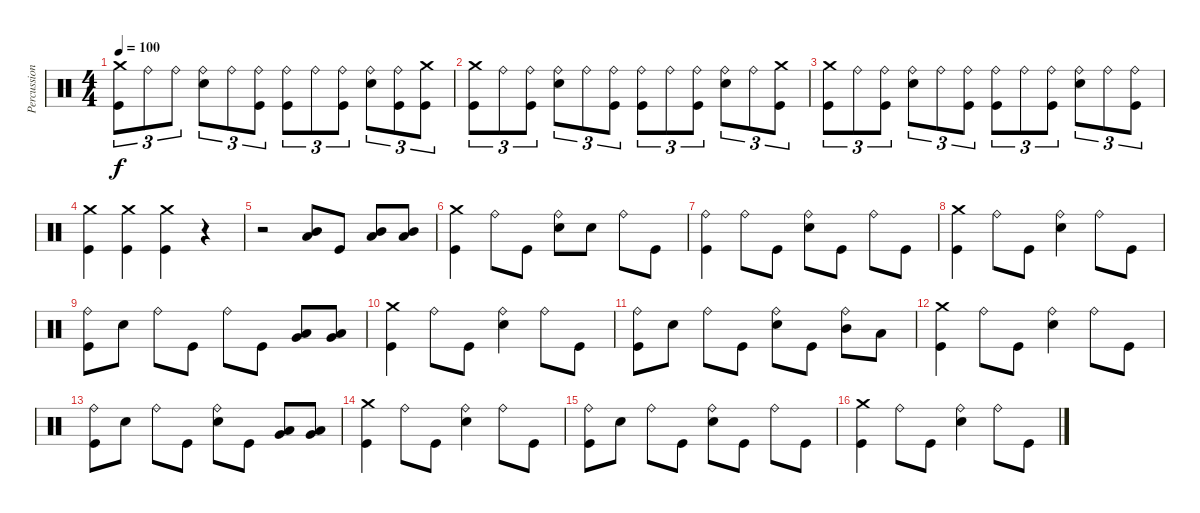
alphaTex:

\track ("Percussions" "Percussion") {instrument percussion}
\staff {score}
\articulation defaults
\ts (4 4)
\tempo 100
\clef neutral
\ks c
("Kick (hit)" "Crash medium (hit)").8{tu (3 2) dy f} "Ride (bell)".8{tu (3 2)} "Ride (bell)".8{tu (3 2)} ("Electric Snare (hit)" "Ride (bell)").8{tu (3 2)} "Ride (bell)".8{tu (3 2)} ("Kick (hit)" "Ride (bell)").8{tu (3 2)} ("Kick (hit)" "Ride (bell)").8{tu (3 2)} "Ride (bell)".8{tu (3 2)} ("Kick (hit)" "Ride (bell)").8{tu (3 2)} ("Electric Snare (hit)" "Ride (bell)").8{tu (3 2)} ("Kick (hit)" "Ride (bell)").8{tu (3 2)} ("Kick (hit)" "Crash medium (hit)").8{tu (3 2)} |
("Kick (hit)" "Crash medium (hit)").8{tu (3 2)} "Ride (bell)".8{tu (3 2)} ("Kick (hit)" "Ride (bell)").8{tu (3 2)} ("Electric Snare (hit)" "Ride (bell)").8{tu (3 2)} "Ride (bell)".8{tu (3 2)} ("Kick (hit)" "Ride (bell)").8{tu (3 2)} ("Kick (hit)" "Ride (bell)").8{tu (3 2)} "Ride (bell)".8{tu (3 2)} ("Kick (hit)" "Ride (bell)").8{tu (3 2)} ("Electric Snare (hit)" "Ride (bell)").8{tu (3 2)} "Ride (bell)".8{tu (3 2)} ("Kick (hit)" "Crash medium (hit)").8{tu (3 2)} |
("Kick (hit)" "Crash medium (hit)").8{tu (3 2)} "Ride (bell)".8{tu (3 2)} ("Kick (hit)" "Ride (bell)").8{tu (3 2)} ("Electric Snare (hit)" "Ride (bell)").8{tu (3 2)} "Ride (bell)".8{tu (3 2)} ("Kick (hit)" "Ride (bell)").8{tu (3 2)} ("Kick (hit)" "Ride (bell)").8{tu (3 2)} "Ride (bell)".8{tu (3 2)} ("Kick (hit)" "Ride (bell)").8{tu (3 2)} ("Electric Snare (hit)" "Ride (bell)").8{tu (3 2)} "Ride (bell)".8{tu (3 2)} ("Kick (hit)" "Ride (bell)").8{tu (3 2)} |
("Kick (hit)" "Crash medium (hit)").4 ("Kick (hit)" "Crash medium (hit)").4 ("Kick (hit)" "Crash medium (hit)").4 r.4 |
r.2 ("Mid Tom (hit)" "Low Tom (hit)").8 "Kick (hit)".8 ("Mid Tom (hit)" "Low Tom (hit)").8 ("Mid Tom (hit)" "Low Tom (hit)").8 |
("Kick (hit)" "Crash medium (hit)").4 "Ride (bell)".8 "Kick (hit)".8 ("Electric Snare (hit)" "Ride (bell)").8 "Electric Snare (hit)".8 "Ride (bell)".8 "Kick (hit)".8 |
("Kick (hit)" "Ride (bell)").4 "Ride (bell)".8 "Kick (hit)".8 ("Electric Snare (hit)" "Ride (bell)").8 "Kick (hit)".8 "Ride (bell)".8 "Kick (hit)".8 |
("Kick (hit)" "Crash medium (hit)").4 "Ride (bell)".8 "Kick (hit)".8 ("Electric Snare (hit)" "Ride (bell)").4 "Ride (bell)".8 "Kick (hit)".8 |
("Kick (hit)" "Ride (bell)").8 "Electric Snare (hit)".8 "Ride (bell)".8 "Kick (hit)".8 "Ride (bell)".8 "Kick (hit)".8 ("Very Low Tom (hit)" "Low Tom (hit)").8 ("Low Tom (hit)" "Very Low Tom (hit)").8 |
("Kick (hit)" "Crash medium (hit)").4 "Ride (bell)".8 "Kick (hit)".8 ("Electric Snare (hit)" "Ride (bell)").4 "Ride (bell)".8 "Kick (hit)".8 |
("Kick (hit)" "Ride (bell)").8 "Electric Snare (hit)".8 "Ride (bell)".8 "Kick (hit)".8 ("Electric Snare (hit)" "Ride (bell)").8 "Kick (hit)".8 ("Mid Tom (hit)" "Ride (bell)").8 "Low Tom (hit)".8 |
("Kick (hit)" "Crash medium (hit)").4 "Ride (bell)".8 "Kick (hit)".8 ("Electric Snare (hit)" "Ride (bell)").4 "Ride (bell)".8 "Kick (hit)".8 |
("Kick (hit)" "Ride (bell)").8 "Electric Snare (hit)".8 "Ride (bell)".8 "Kick (hit)".8 ("Electric Snare (hit)" "Ride (bell)").8 "Kick (hit)".8 ("Low Tom (hit)" "Very Low Tom (hit)").8 ("Low Tom (hit)" "Very Low Tom (hit)").8 |
("Kick (hit)" "Crash medium (hit)").4 "Ride (bell)".8 "Kick (hit)".8 ("Electric Snare (hit)" "Ride (bell)").4 "Ride (bell)".8 "Kick (hit)".8 |
("Kick (hit)" "Ride (bell)").8 "Electric Snare (hit)".8 "Ride (bell)".8 "Kick (hit)".8 ("Electric Snare (hit)" "Ride (bell)").8 "Kick (hit)".8 "Ride (bell)".8 "Kick (hit)".8 |
("Kick (hit)" "Crash medium (hit)").4 "Ride (bell)".8 "Kick (hit)".8 ("Electric Snare (hit)" "Ride (bell)").4 "Ride (bell)".8 "Kick (hit)".8
